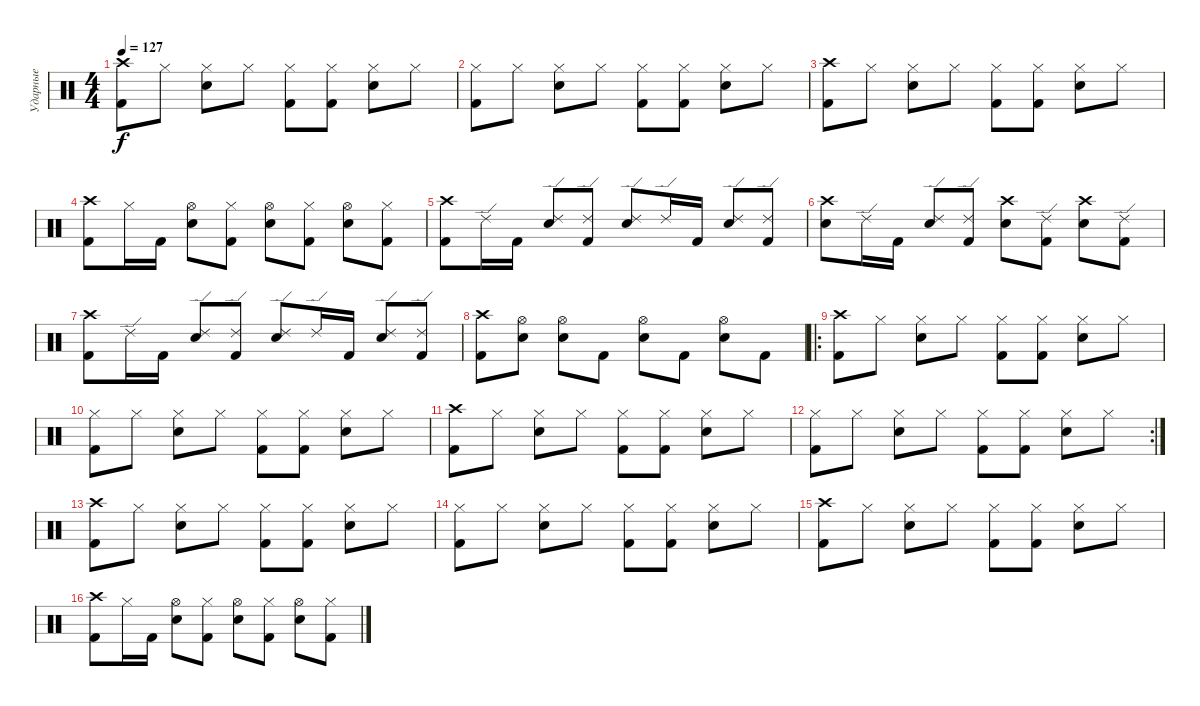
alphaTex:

\track ("Ударные" "Ударные") {instrument percussion}
\staff {score}
\articulation defaults
\ts (4 4)
\tempo 127
\clef neutral
\ks c
("Kick (hit) 2" "Crash high (hit)").8{dy f} "Hi-Hat (closed)".8 ("Electric Snare (hit)" "Hi-Hat (closed)").8 "Hi-Hat (closed)".8 ("Kick (hit) 2" "Hi-Hat (closed)").8 ("Kick (hit) 2" "Hi-Hat (closed)").8 ("Electric Snare (hit)" "Hi-Hat (closed)").8 "Hi-Hat (closed)".8 |
("Kick (hit) 2" "Hi-Hat (closed)").8 "Hi-Hat (closed)".8 ("Electric Snare (hit)" "Hi-Hat (closed)").8 "Hi-Hat (closed)".8 ("Kick (hit) 2" "Hi-Hat (closed)").8 ("Kick (hit) 2" "Hi-Hat (closed)").8 ("Electric Snare (hit)" "Hi-Hat (closed)").8 "Hi-Hat (closed)".8 |
("Kick (hit) 2" "Crash high (hit)").8 "Hi-Hat (closed)".8 ("Electric Snare (hit)" "Hi-Hat (closed)").8 "Hi-Hat (closed)".8 ("Kick (hit) 2" "Hi-Hat (closed)").8 ("Kick (hit) 2" "Hi-Hat (closed)").8 ("Electric Snare (hit)" "Hi-Hat (closed)").8 "Hi-Hat (closed)".8 |
("Kick (hit) 2" "Crash high (hit)").8 "Hi-Hat (closed)".16 "Kick (hit) 2".16 ("Electric Snare (hit)" "Hi-Hat (open)").8 ("Kick (hit) 2" "Hi-Hat (closed)").8 ("Electric Snare (hit)" "Hi-Hat (open)").8 ("Kick (hit) 2" "Hi-Hat (closed)").8 ("Electric Snare (hit)" "Hi-Hat (open)").8 ("Kick (hit) 2" "Hi-Hat (closed)").8 |
("Kick (hit) 2" "Crash high (hit)").8 "Ride (edge) 2".16 "Kick (hit) 2".16 ("Electric Snare (hit)" "Ride (edge) 2").8 ("Kick (hit) 2" "Ride (edge) 2").8 ("Electric Snare (hit)" "Ride (edge) 2").8 "Ride (edge) 2".16 "Kick (hit) 2".16 ("Electric Snare (hit)" "Ride (edge) 2").8 ("Kick (hit) 2" "Ride (edge) 2").8 |
("Electric Snare (hit)" "Crash high (hit)").8 "Ride (edge) 2".16 "Kick (hit) 2".16 ("Electric Snare (hit)" "Ride (edge) 2").8 ("Kick (hit) 2" "Ride (edge) 2").8 ("Electric Snare (hit)" "Crash high (hit)").8 ("Kick (hit) 2" "Ride (edge) 2").8 ("Electric Snare (hit)" "Crash high (hit)").8 ("Kick (hit) 2" "Ride (edge) 2").8 |
("Kick (hit) 2" "Crash high (hit)").8 "Ride (edge) 2".16 "Kick (hit) 2".16 ("Electric Snare (hit)" "Ride (edge) 2").8 ("Kick (hit) 2" "Ride (edge) 2").8 ("Electric Snare (hit)" "Ride (edge) 2").8 "Ride (edge) 2".16 "Kick (hit) 2".16 ("Electric Snare (hit)" "Ride (edge) 2").8 ("Kick (hit) 2" "Ride (edge) 2").8 |
("Kick (hit) 2" "Crash high (hit)").8 ("Electric Snare (hit)" "Hi-Hat (open)").8 ("Electric Snare (hit)" "Hi-Hat (open)").8 "Kick (hit) 2".8 ("Electric Snare (hit)" "Hi-Hat (open)").8 "Kick (hit) 2".8 ("Electric Snare (hit)" "Hi-Hat (open)").8 "Kick (hit) 2".8 |
\ro
("Kick (hit) 2" "Crash high (hit)").8 "Hi-Hat (closed)".8 ("Electric Snare (hit)" "Hi-Hat (closed)").8 "Hi-Hat (closed)".8 ("Kick (hit) 2" "Hi-Hat (closed)").8 ("Kick (hit) 2" "Hi-Hat (closed)").8 ("Electric Snare (hit)" "Hi-Hat (closed)").8 "Hi-Hat (closed)".8 |
("Kick (hit) 2" "Hi-Hat (closed)").8 "Hi-Hat (closed)".8 ("Electric Snare (hit)" "Hi-Hat (closed)").8 "Hi-Hat (closed)".8 ("Kick (hit) 2" "Hi-Hat (closed)").8 ("Kick (hit) 2" "Hi-Hat (closed)").8 ("Electric Snare (hit)" "Hi-Hat (closed)").8 "Hi-Hat (closed)".8 |
("Kick (hit) 2" "Crash high (hit)").8 "Hi-Hat (closed)".8 ("Electric Snare (hit)" "Hi-Hat (closed)").8 "Hi-Hat (closed)".8 ("Kick (hit) 2" "Hi-Hat (closed)").8 ("Kick (hit) 2" "Hi-Hat (closed)").8 ("Electric Snare (hit)" "Hi-Hat (closed)").8 "Hi-Hat (closed)".8 |
\rc 2
("Kick (hit) 2" "Hi-Hat (closed)").8 "Hi-Hat (closed)".8 ("Electric Snare (hit)" "Hi-Hat (closed)").8 "Hi-Hat (closed)".8 ("Kick (hit) 2" "Hi-Hat (closed)").8 ("Kick (hit) 2" "Hi-Hat (closed)").8 ("Electric Snare (hit)" "Hi-Hat (closed)").8 "Hi-Hat (closed)".8 |
("Kick (hit) 2" "Crash high (hit)").8 "Hi-Hat (closed)".8 ("Electric Snare (hit)" "Hi-Hat (closed)").8 "Hi-Hat (closed)".8 ("Kick (hit) 2" "Hi-Hat (closed)").8 ("Kick (hit) 2" "Hi-Hat (closed)").8 ("Electric Snare (hit)" "Hi-Hat (closed)").8 "Hi-Hat (closed)".8 |
("Kick (hit) 2" "Hi-Hat (closed)").8 "Hi-Hat (closed)".8 ("Electric Snare (hit)" "Hi-Hat (closed)").8 "Hi-Hat (closed)".8 ("Kick (hit) 2" "Hi-Hat (closed)").8 ("Kick (hit) 2" "Hi-Hat (closed)").8 ("Electric Snare (hit)" "Hi-Hat (closed)").8 "Hi-Hat (closed)".8 |
("Kick (hit) 2" "Crash high (hit)").8 "Hi-Hat (closed)".8 ("Electric Snare (hit)" "Hi-Hat (closed)").8 "Hi-Hat (closed)".8 ("Kick (hit) 2" "Hi-Hat (closed)").8 ("Kick (hit) 2" "Hi-Hat (closed)").8 ("Electric Snare (hit)" "Hi-Hat (closed)").8 "Hi-Hat (closed)".8 |
("Kick (hit) 2" "Crash high (hit)").8 "Hi-Hat (closed)".16 "Kick (hit) 2".16 ("Electric Snare (hit)" "Hi-Hat (open)").8 ("Kick (hit) 2" "Hi-Hat (closed)").8 ("Electric Snare (hit)" "Hi-Hat (open)").8 ("Kick (hit) 2" "Hi-Hat (closed)").8 ("Electric Snare (hit)" "Hi-Hat (open)").8 ("Kick (hit) 2" "Hi-Hat (closed)").8
